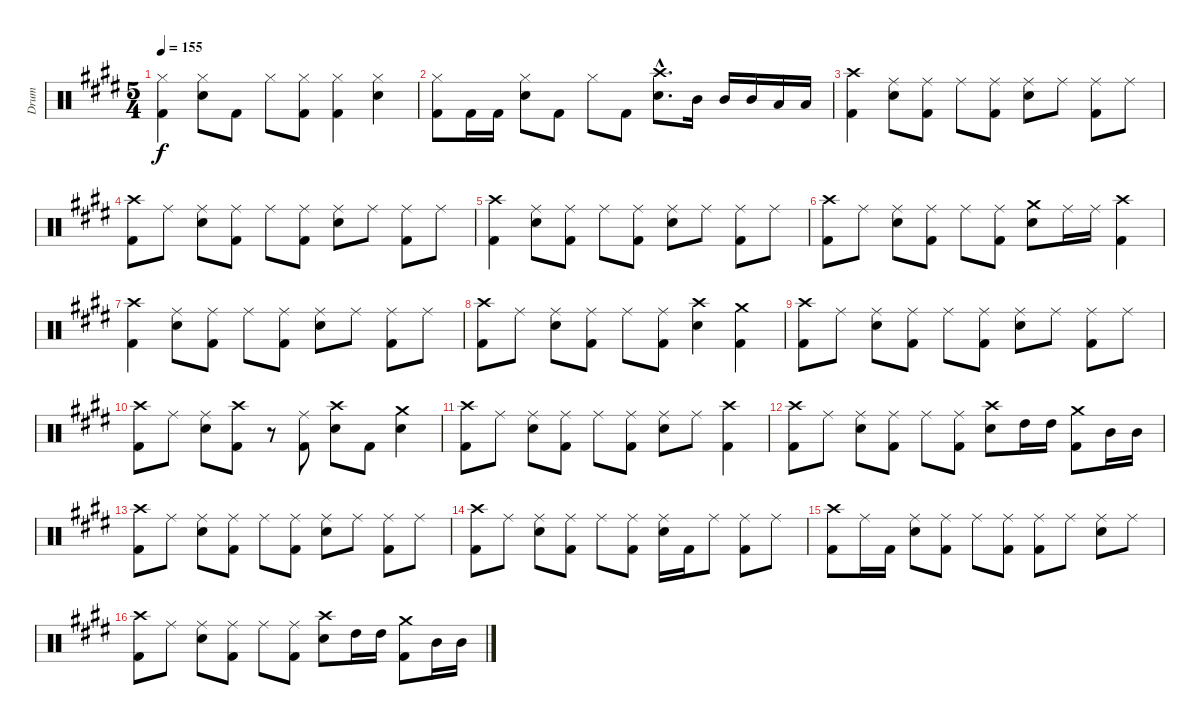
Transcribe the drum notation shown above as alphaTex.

\track ("Drum" "Drum") {instrument percussion}
\staff {score}
\articulation defaults
\ts (5 4)
\tempo 155
\clef neutral
\ks e
("Hi-Hat (closed)" "Kick (hit) 2").4{dy f} ("Hi-Hat (closed)" "Snare (hit) 2").8 "Kick (hit) 2".8 "Hi-Hat (closed)".8 ("Hi-Hat (closed)" "Kick (hit) 2").8 ("Hi-Hat (closed)" "Kick (hit) 2").4 ("Hi-Hat (closed)" "Snare (hit) 2").4 |
("Hi-Hat (closed)" "Kick (hit) 2").8 "Kick (hit) 2".16 "Kick (hit) 2".16 ("Hi-Hat (closed)" "Snare (hit) 2").8 "Kick (hit) 2".8 "Hi-Hat (closed)".8 "Kick (hit) 2".8 ("Crash high (hit)"{hac} "Snare (hit) 2"{hac}).8{d} "Mid Tom (hit)".16 "Mid Tom (hit)".16 "Mid Tom (hit)".16 "Low Tom (hit)".16 "Low Tom (hit)".16 |
("Crash high (hit)" "Kick (hit) 2").4 ("Ride (middle)" "Snare (hit) 2").8 ("Ride (middle)" "Kick (hit) 2").8 "Ride (middle)".8 ("Ride (middle)" "Kick (hit) 2").8 ("Ride (middle)" "Snare (hit) 2").8 "Ride (middle)".8 ("Ride (middle)" "Kick (hit) 2").8 "Ride (middle)".8 |
("Crash high (hit)" "Kick (hit) 2").8 "Ride (middle)".8 ("Ride (middle)" "Snare (hit) 2").8 ("Ride (middle)" "Kick (hit) 2").8 "Ride (middle)".8 ("Ride (middle)" "Kick (hit) 2").8 ("Ride (middle)" "Snare (hit) 2").8 "Ride (middle)".8 ("Ride (middle)" "Kick (hit) 2").8 "Ride (middle)".8 |
("Crash high (hit)" "Kick (hit) 2").4 ("Ride (middle)" "Snare (hit) 2").8 ("Ride (middle)" "Kick (hit) 2").8 "Ride (middle)".8 ("Ride (middle)" "Kick (hit) 2").8 ("Ride (middle)" "Snare (hit) 2").8 "Ride (middle)".8 ("Ride (middle)" "Kick (hit) 2").8 "Ride (middle)".8 |
("Crash high (hit)" "Kick (hit) 2").8 "Ride (middle)".8 ("Ride (middle)" "Snare (hit) 2").8 ("Ride (middle)" "Kick (hit) 2").8 "Ride (middle)".8 ("Ride (middle)" "Kick (hit) 2").8 ("Crash medium (hit)" "Snare (hit) 2").8 "Ride (middle)".16 "Ride (middle)".16 ("Crash high (hit)" "Kick (hit) 2").4 |
("Crash high (hit)" "Kick (hit) 2").4 ("Ride (middle)" "Snare (hit) 2").8 ("Ride (middle)" "Kick (hit) 2").8 "Ride (middle)".8 ("Ride (middle)" "Kick (hit) 2").8 ("Ride (middle)" "Snare (hit) 2").8 "Ride (middle)".8 ("Ride (middle)" "Kick (hit) 2").8 "Ride (middle)".8 |
("Crash high (hit)" "Kick (hit) 2").8 "Ride (middle)".8 ("Ride (middle)" "Snare (hit) 2").8 ("Ride (middle)" "Kick (hit) 2").8 "Ride (middle)".8 ("Ride (middle)" "Kick (hit) 2").8 ("Crash high (hit)" "Snare (hit) 2").4 ("Crash medium (hit)" "Kick (hit) 2").4 |
("Crash high (hit)" "Kick (hit) 2").8 "Ride (middle)".8 ("Ride (middle)" "Snare (hit) 2").8 ("Ride (middle)" "Kick (hit) 2").8 "Ride (middle)".8 ("Ride (middle)" "Kick (hit) 2").8 ("Ride (middle)" "Snare (hit) 2").8 "Ride (middle)".8 ("Ride (middle)" "Kick (hit) 2").8 "Ride (middle)".8 |
("Crash high (hit)" "Kick (hit) 2").8 "Ride (middle)".8 ("Ride (middle)" "Snare (hit) 2").8 ("Crash high (hit)" "Kick (hit) 2").8 r.8 ("Ride (middle)" "Kick (hit) 2").8 ("Crash high (hit)" "Snare (hit) 2").8 "Kick (hit) 2".8 ("Crash medium (hit)" "Snare (hit) 2").4 |
("Crash high (hit)" "Kick (hit) 2").8 "Ride (middle)".8 ("Ride (middle)" "Snare (hit) 2").8 ("Ride (middle)" "Kick (hit) 2").8 "Ride (middle)".8 ("Ride (middle)" "Kick (hit) 2").8 ("Ride (middle)" "Snare (hit) 2").8 "Ride (middle)".8 ("Crash high (hit)" "Kick (hit) 2").4 |
("Crash high (hit)" "Kick (hit) 2").8 "Ride (middle)".8 ("Ride (middle)" "Snare (hit) 2").8 ("Ride (middle)" "Kick (hit) 2").8 "Ride (middle)".8 ("Ride (middle)" "Kick (hit) 2").8 ("Crash high (hit)" "Snare (hit) 2").8 "High Tom (hit)".16 "High Tom (hit)".16 ("Crash medium (hit)" "Kick (hit) 2").8 "Mid Tom (hit)".16 "Mid Tom (hit)".16 |
("Crash high (hit)" "Kick (hit) 2").8 "Ride (middle)".8 ("Ride (middle)" "Snare (hit) 2").8 ("Ride (middle)" "Kick (hit) 2").8 "Ride (middle)".8 ("Ride (middle)" "Kick (hit) 2").8 ("Ride (middle)" "Snare (hit) 2").8 "Ride (middle)".8 ("Ride (middle)" "Kick (hit) 2").8 "Ride (middle)".8 |
("Crash high (hit)" "Kick (hit) 2").8 "Ride (middle)".8 ("Ride (middle)" "Snare (hit) 2").8 ("Ride (middle)" "Kick (hit) 2").8 "Ride (middle)".8 ("Ride (middle)" "Kick (hit) 2").8 ("Ride (middle)" "Snare (hit) 2").16 "Kick (hit) 2".16 "Ride (middle)".8 ("Ride (middle)" "Kick (hit) 2").8 "Ride (middle)".8 |
("Crash high (hit)" "Kick (hit) 2").8 "Ride (middle)".16 "Kick (hit) 2".16 ("Ride (middle)" "Snare (hit) 2").8 ("Ride (middle)" "Kick (hit) 2").8 "Ride (middle)".8 ("Ride (middle)" "Kick (hit) 2").8 ("Ride (middle)" "Kick (hit) 2").8 "Ride (middle)".8 ("Ride (middle)" "Snare (hit) 2").8 "Ride (middle)".8 |
("Crash high (hit)" "Kick (hit) 2").8 "Ride (middle)".8 ("Ride (middle)" "Snare (hit) 2").8 ("Ride (middle)" "Kick (hit) 2").8 "Ride (middle)".8 ("Ride (middle)" "Kick (hit) 2").8 ("Crash high (hit)" "Snare (hit) 2").8 "High Tom (hit)".16 "High Tom (hit)".16 ("Crash medium (hit)" "Kick (hit) 2").8 "Mid Tom (hit)".16 "Mid Tom (hit)".16
